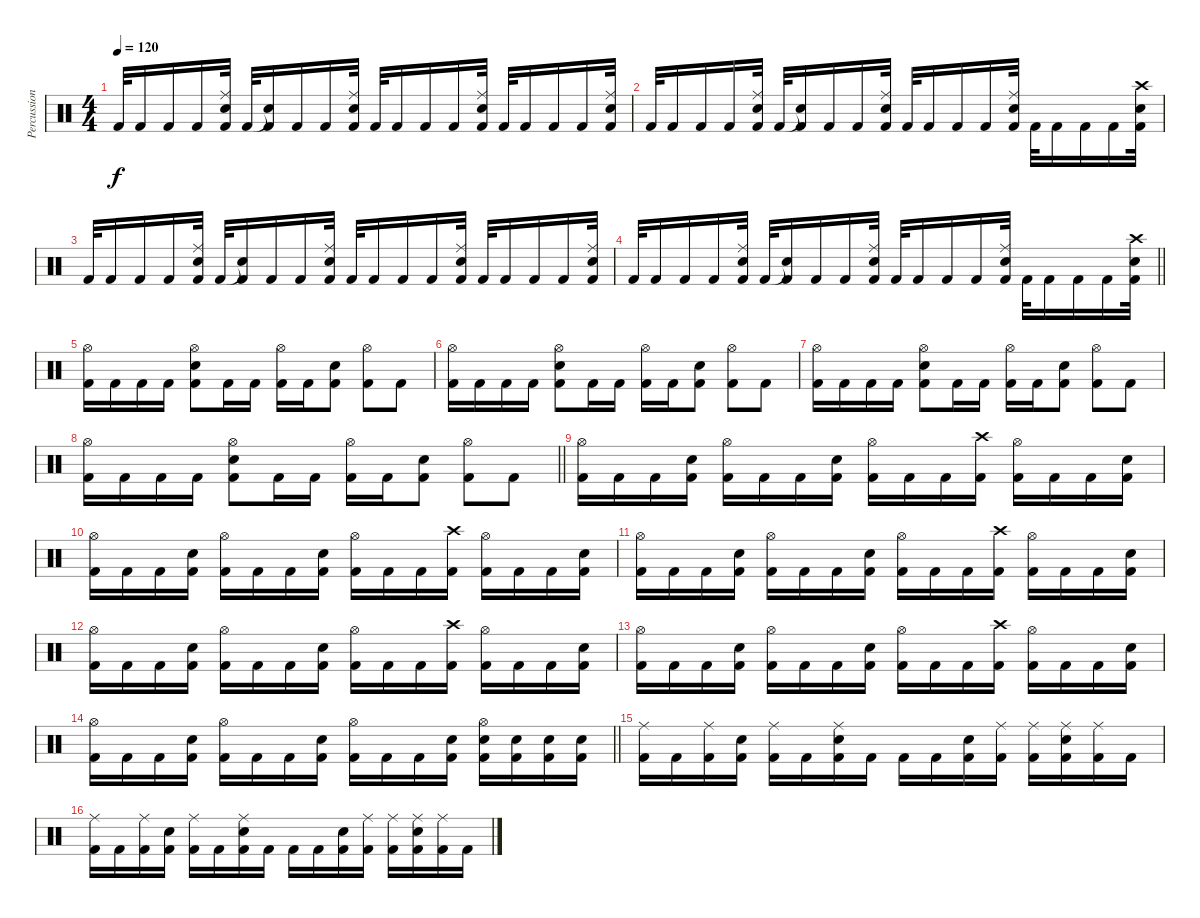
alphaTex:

\track ("Percussion" "Percussion") {instrument percussion}
\staff {score}
\articulation defaults
\ts (4 4)
\tempo 120
\clef neutral
\ks c "Kick (hit) 2".32{dy f} "Kick (hit) 2".16 "Kick (hit) 2".16 "Kick (hit) 2".16
("Ride (middle)" "Electric Snare (hit)" "Kick (hit) 2").32 "Kick (hit) 2".32 ("Electric Snare (hit)"{t} "Kick (hit) 2").16 "Kick (hit) 2".16 "Kick (hit) 2".16 ("Ride (middle)" "Electric Snare (hit)" "Kick (hit) 2").32 "Kick (hit) 2".32 "Kick (hit) 2".16 "Kick (hit) 2".16 "Kick (hit) 2".16 ("Ride (middle)" "Electric Snare (hit)" "Kick (hit) 2").32 "Kick (hit) 2".32 "Kick (hit) 2".16 "Kick (hit) 2".16 "Kick (hit) 2".16 ("Ride (middle)" "Electric Snare (hit)" "Kick (hit) 2").32 |
"Kick (hit) 2".32 "Kick (hit) 2".16 "Kick (hit) 2".16 "Kick (hit) 2".16 ("Ride (middle)" "Electric Snare (hit)" "Kick (hit) 2").32 "Kick (hit) 2".32 ("Electric Snare (hit)"{t} "Kick (hit) 2").16 "Kick (hit) 2".16 "Kick (hit) 2".16 ("Ride (middle)" "Electric Snare (hit)" "Kick (hit) 2").32 "Kick (hit) 2".32 "Kick (hit) 2".16 "Kick (hit) 2".16 "Kick (hit) 2".16 ("Ride (middle)" "Electric Snare (hit)" "Kick (hit) 2").32 "Kick (hit) 2".32 "Kick (hit) 2".16 "Kick (hit) 2".16 "Kick (hit) 2".16 ("Crash high (hit)" "Electric Snare (hit)" "Kick (hit) 2").32 |
"Kick (hit) 2".32 "Kick (hit) 2".16 "Kick (hit) 2".16 "Kick (hit) 2".16 ("Ride (middle)" "Electric Snare (hit)" "Kick (hit) 2").32 "Kick (hit) 2".32 ("Electric Snare (hit)"{t} "Kick (hit) 2").16 "Kick (hit) 2".16 "Kick (hit) 2".16 ("Ride (middle)" "Electric Snare (hit)" "Kick (hit) 2").32 "Kick (hit) 2".32 "Kick (hit) 2".16 "Kick (hit) 2".16 "Kick (hit) 2".16 ("Ride (middle)" "Electric Snare (hit)" "Kick (hit) 2").32 "Kick (hit) 2".32 "Kick (hit) 2".16 "Kick (hit) 2".16 "Kick (hit) 2".16 ("Ride (middle)" "Electric Snare (hit)" "Kick (hit) 2").32 |
\barLineRight lightlight "Kick (hit) 2".32 "Kick (hit) 2".16 "Kick (hit) 2".16 "Kick (hit) 2".16
("Ride (middle)" "Electric Snare (hit)" "Kick (hit) 2").32 "Kick (hit) 2".32 ("Electric Snare (hit)"{t} "Kick (hit) 2").16 "Kick (hit) 2".16 "Kick (hit) 2".16 ("Ride (middle)" "Electric Snare (hit)" "Kick (hit) 2").32 "Kick (hit) 2".32 "Kick (hit) 2".16 "Kick (hit) 2".16 "Kick (hit) 2".16 ("Ride (middle)" "Electric Snare (hit)" "Kick (hit) 2").32 "Kick (hit) 2".32 "Kick (hit) 2".16 "Kick (hit) 2".16 "Kick (hit) 2".16 ("Crash high (hit)" "Electric Snare (hit)" "Kick (hit) 2").32 |
("Hi-Hat (open)" "Kick (hit) 2").16 "Kick (hit) 2".16 "Kick (hit) 2".16 "Kick (hit) 2".16 ("Hi-Hat (open)" "Electric Snare (hit)" "Kick (hit) 2").8 "Kick (hit) 2".16 "Kick (hit) 2".16 ("Hi-Hat (open)" "Kick (hit) 2").16 "Kick (hit) 2".16 ("Electric Snare (hit)" "Kick (hit) 2").8 ("Hi-Hat (open)" "Kick (hit) 2").8 "Kick (hit) 2".8 |
("Hi-Hat (open)" "Kick (hit) 2").16 "Kick (hit) 2".16 "Kick (hit) 2".16 "Kick (hit) 2".16 ("Hi-Hat (open)" "Electric Snare (hit)" "Kick (hit) 2").8 "Kick (hit) 2".16 "Kick (hit) 2".16 ("Hi-Hat (open)" "Kick (hit) 2").16 "Kick (hit) 2".16 ("Electric Snare (hit)" "Kick (hit) 2").8 ("Hi-Hat (open)" "Kick (hit) 2").8 "Kick (hit) 2".8 |
("Hi-Hat (open)" "Kick (hit) 2").16 "Kick (hit) 2".16 "Kick (hit) 2".16 "Kick (hit) 2".16 ("Hi-Hat (open)" "Electric Snare (hit)" "Kick (hit) 2").8 "Kick (hit) 2".16 "Kick (hit) 2".16 ("Hi-Hat (open)" "Kick (hit) 2").16 "Kick (hit) 2".16 ("Electric Snare (hit)" "Kick (hit) 2").8 ("Hi-Hat (open)" "Kick (hit) 2").8 "Kick (hit) 2".8 |
\barLineRight lightlight
("Hi-Hat (open)" "Kick (hit) 2").16 "Kick (hit) 2".16 "Kick (hit) 2".16 "Kick (hit) 2".16 ("Hi-Hat (open)" "Electric Snare (hit)" "Kick (hit) 2").8 "Kick (hit) 2".16 "Kick (hit) 2".16 ("Hi-Hat (open)" "Kick (hit) 2").16 "Kick (hit) 2".16 ("Electric Snare (hit)" "Kick (hit) 2").8 ("Hi-Hat (open)" "Kick (hit) 2").8 "Kick (hit) 2".8 |
("Hi-Hat (open)" "Kick (hit) 2").16 "Kick (hit) 2".16 "Kick (hit) 2".16 ("Electric Snare (hit)" "Kick (hit) 2").16 ("Hi-Hat (open)" "Kick (hit) 2").16 "Kick (hit) 2".16 "Kick (hit) 2".16 ("Electric Snare (hit)" "Kick (hit) 2").16 ("Hi-Hat (open)" "Kick (hit) 2").16 "Kick (hit) 2".16 "Kick (hit) 2".16 ("Crash high (hit)" "Kick (hit) 2").16 ("Hi-Hat (open)" "Kick (hit) 2").16 "Kick (hit) 2".16 "Kick (hit) 2".16 ("Electric Snare (hit)" "Kick (hit) 2").16 |
("Hi-Hat (open)" "Kick (hit) 2").16 "Kick (hit) 2".16 "Kick (hit) 2".16 ("Electric Snare (hit)" "Kick (hit) 2").16 ("Hi-Hat (open)" "Kick (hit) 2").16 "Kick (hit) 2".16 "Kick (hit) 2".16 ("Electric Snare (hit)" "Kick (hit) 2").16 ("Hi-Hat (open)" "Kick (hit) 2").16 "Kick (hit) 2".16 "Kick (hit) 2".16 ("Crash high (hit)" "Kick (hit) 2").16 ("Hi-Hat (open)" "Kick (hit) 2").16 "Kick (hit) 2".16 "Kick (hit) 2".16 ("Electric Snare (hit)" "Kick (hit) 2").16 |
("Hi-Hat (open)" "Kick (hit) 2").16 "Kick (hit) 2".16 "Kick (hit) 2".16 ("Electric Snare (hit)" "Kick (hit) 2").16 ("Hi-Hat (open)" "Kick (hit) 2").16 "Kick (hit) 2".16 "Kick (hit) 2".16 ("Electric Snare (hit)" "Kick (hit) 2").16 ("Hi-Hat (open)" "Kick (hit) 2").16 "Kick (hit) 2".16 "Kick (hit) 2".16 ("Crash high (hit)" "Kick (hit) 2").16 ("Hi-Hat (open)" "Kick (hit) 2").16 "Kick (hit) 2".16 "Kick (hit) 2".16 ("Electric Snare (hit)" "Kick (hit) 2").16 |
("Hi-Hat (open)" "Kick (hit) 2").16 "Kick (hit) 2".16 "Kick (hit) 2".16 ("Electric Snare (hit)" "Kick (hit) 2").16 ("Hi-Hat (open)" "Kick (hit) 2").16 "Kick (hit) 2".16 "Kick (hit) 2".16 ("Electric Snare (hit)" "Kick (hit) 2").16 ("Hi-Hat (open)" "Kick (hit) 2").16 "Kick (hit) 2".16 "Kick (hit) 2".16 ("Crash high (hit)" "Kick (hit) 2").16 ("Hi-Hat (open)" "Kick (hit) 2").16 "Kick (hit) 2".16 "Kick (hit) 2".16 ("Electric Snare (hit)" "Kick (hit) 2").16 |
("Hi-Hat (open)" "Kick (hit) 2").16 "Kick (hit) 2".16 "Kick (hit) 2".16 ("Electric Snare (hit)" "Kick (hit) 2").16 ("Hi-Hat (open)" "Kick (hit) 2").16 "Kick (hit) 2".16 "Kick (hit) 2".16 ("Electric Snare (hit)" "Kick (hit) 2").16 ("Hi-Hat (open)" "Kick (hit) 2").16 "Kick (hit) 2".16 "Kick (hit) 2".16 ("Crash high (hit)" "Kick (hit) 2").16 ("Hi-Hat (open)" "Kick (hit) 2").16 "Kick (hit) 2".16 "Kick (hit) 2".16 ("Electric Snare (hit)" "Kick (hit) 2").16 |
\barLineRight lightlight
("Hi-Hat (open)" "Kick (hit) 2").16 "Kick (hit) 2".16 "Kick (hit) 2".16 ("Electric Snare (hit)" "Kick (hit) 2").16 ("Hi-Hat (open)" "Kick (hit) 2").16 "Kick (hit) 2".16 "Kick (hit) 2".16 ("Electric Snare (hit)" "Kick (hit) 2").16 ("Hi-Hat (open)" "Kick (hit) 2").16 "Kick (hit) 2".16 "Kick (hit) 2".16 ("Electric Snare (hit)" "Kick (hit) 2").16 ("Hi-Hat (open)" "Electric Snare (hit)" "Kick (hit) 2").16 ("Electric Snare (hit)" "Kick (hit) 2").16 ("Electric Snare (hit)" "Kick (hit) 2").16 ("Electric Snare (hit)" "Kick (hit) 2").16 |
("Ride (middle)" "Kick (hit) 2").16 "Kick (hit) 2".16 ("Ride (middle)" "Kick (hit) 2").16 ("Electric Snare (hit)" "Kick (hit) 2").16 ("Ride (middle)" "Kick (hit) 2").16 "Kick (hit) 2".16 ("Ride (middle)" "Electric Snare (hit)" "Kick (hit) 2").16 "Kick (hit) 2".16 "Kick (hit) 2".16 "Kick (hit) 2".16 ("Electric Snare (hit)" "Kick (hit) 2").16 ("Ride (middle)" "Kick (hit) 2").16 ("Ride (middle)" "Kick (hit) 2").16 ("Ride (middle)" "Electric Snare (hit)" "Kick (hit) 2").16 ("Ride (middle)" "Kick (hit) 2").16 "Kick (hit) 2".16 |
("Ride (middle)" "Kick (hit) 2").16 "Kick (hit) 2".16 ("Ride (middle)" "Kick (hit) 2").16 ("Electric Snare (hit)" "Kick (hit) 2").16 ("Ride (middle)" "Kick (hit) 2").16 "Kick (hit) 2".16 ("Ride (middle)" "Electric Snare (hit)" "Kick (hit) 2").16 "Kick (hit) 2".16 "Kick (hit) 2".16 "Kick (hit) 2".16 ("Electric Snare (hit)" "Kick (hit) 2").16 ("Ride (middle)" "Kick (hit) 2").16 ("Ride (middle)" "Kick (hit) 2").16 ("Ride (middle)" "Electric Snare (hit)" "Kick (hit) 2").16 ("Ride (middle)" "Kick (hit) 2").16 "Kick (hit) 2".16
